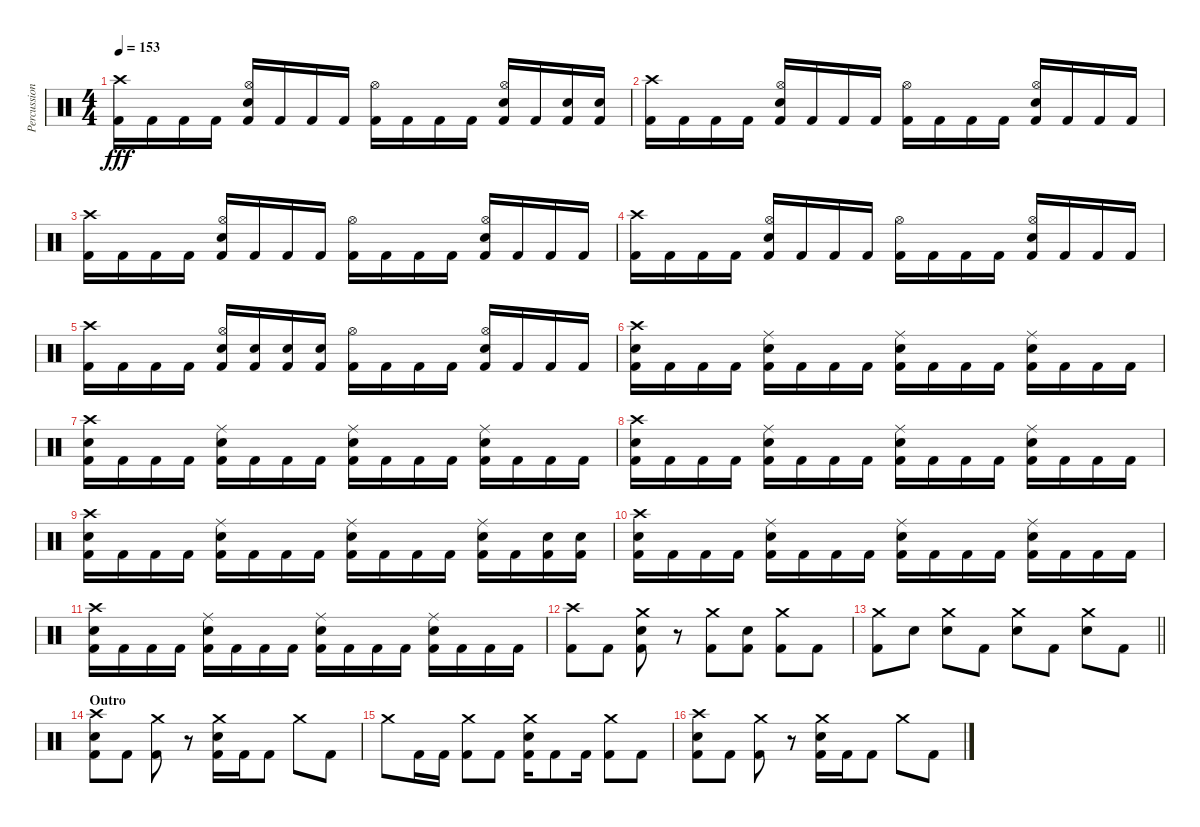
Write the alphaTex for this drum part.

\track ("Percussion" "Percussion") {instrument percussion}
\staff {score}
\articulation defaults
\ts (4 4)
\tempo 153
\clef neutral
\ks c
("Crash high (hit)" "Kick (hit) 2").16{dy fff} "Kick (hit) 2".16 "Kick (hit) 2".16 "Kick (hit) 2".16 ("Hi-Hat (open)" "Snare (hit) 2" "Kick (hit) 2").16 "Kick (hit) 2".16 "Kick (hit) 2".16 "Kick (hit) 2".16 ("Hi-Hat (open)" "Kick (hit) 2").16 "Kick (hit) 2".16 "Kick (hit) 2".16 "Kick (hit) 2".16 ("Hi-Hat (open)" "Snare (hit) 2" "Kick (hit) 2").16 "Kick (hit) 2".16 ("Snare (hit) 2" "Kick (hit) 2").16 ("Snare (hit) 2" "Kick (hit) 2").16 |
("Crash high (hit)" "Kick (hit) 2").16 "Kick (hit) 2".16 "Kick (hit) 2".16 "Kick (hit) 2".16 ("Hi-Hat (open)" "Snare (hit) 2" "Kick (hit) 2").16 "Kick (hit) 2".16 "Kick (hit) 2".16 "Kick (hit) 2".16 ("Hi-Hat (open)" "Kick (hit) 2").16 "Kick (hit) 2".16 "Kick (hit) 2".16 "Kick (hit) 2".16 ("Hi-Hat (open)" "Snare (hit) 2" "Kick (hit) 2").16 "Kick (hit) 2".16 "Kick (hit) 2".16 "Kick (hit) 2".16 |
("Crash high (hit)" "Kick (hit) 2").16 "Kick (hit) 2".16 "Kick (hit) 2".16 "Kick (hit) 2".16 ("Hi-Hat (open)" "Snare (hit) 2" "Kick (hit) 2").16 "Kick (hit) 2".16 "Kick (hit) 2".16 "Kick (hit) 2".16 ("Hi-Hat (open)" "Kick (hit) 2").16 "Kick (hit) 2".16 "Kick (hit) 2".16 "Kick (hit) 2".16 ("Hi-Hat (open)" "Snare (hit) 2" "Kick (hit) 2").16 "Kick (hit) 2".16 "Kick (hit) 2".16 "Kick (hit) 2".16 |
("Crash high (hit)" "Kick (hit) 2").16 "Kick (hit) 2".16 "Kick (hit) 2".16 "Kick (hit) 2".16 ("Hi-Hat (open)" "Snare (hit) 2" "Kick (hit) 2").16 "Kick (hit) 2".16 "Kick (hit) 2".16 "Kick (hit) 2".16 ("Hi-Hat (open)" "Kick (hit) 2").16 "Kick (hit) 2".16 "Kick (hit) 2".16 "Kick (hit) 2".16 ("Hi-Hat (open)" "Snare (hit) 2" "Kick (hit) 2").16 "Kick (hit) 2".16 "Kick (hit) 2".16 "Kick (hit) 2".16 |
("Crash high (hit)" "Kick (hit) 2").16 "Kick (hit) 2".16 "Kick (hit) 2".16 "Kick (hit) 2".16 ("Hi-Hat (open)" "Snare (hit) 2" "Kick (hit) 2").16 ("Snare (hit) 2" "Kick (hit) 2").16 ("Snare (hit) 2" "Kick (hit) 2").16 ("Snare (hit) 2" "Kick (hit) 2").16 ("Hi-Hat (open)" "Kick (hit) 2").16 "Kick (hit) 2".16 "Kick (hit) 2".16 "Kick (hit) 2".16 ("Hi-Hat (open)" "Snare (hit) 2" "Kick (hit) 2").16 "Kick (hit) 2".16 "Kick (hit) 2".16 "Kick (hit) 2".16 |
("Crash high (hit)" "Snare (hit) 2" "Kick (hit) 2").16 "Kick (hit) 2".16 "Kick (hit) 2".16 "Kick (hit) 2".16 ("Ride (middle)" "Snare (hit) 2" "Kick (hit) 2").16 "Kick (hit) 2".16 "Kick (hit) 2".16 "Kick (hit) 2".16 ("Ride (middle)" "Snare (hit) 2" "Kick (hit) 2").16 "Kick (hit) 2".16 "Kick (hit) 2".16 "Kick (hit) 2".16 ("Ride (middle)" "Snare (hit) 2" "Kick (hit) 2").16 "Kick (hit) 2".16 "Kick (hit) 2".16 "Kick (hit) 2".16 |
("Crash high (hit)" "Snare (hit) 2" "Kick (hit) 2").16 "Kick (hit) 2".16 "Kick (hit) 2".16 "Kick (hit) 2".16 ("Ride (middle)" "Snare (hit) 2" "Kick (hit) 2").16 "Kick (hit) 2".16 "Kick (hit) 2".16 "Kick (hit) 2".16 ("Ride (middle)" "Snare (hit) 2" "Kick (hit) 2").16 "Kick (hit) 2".16 "Kick (hit) 2".16 "Kick (hit) 2".16 ("Ride (middle)" "Snare (hit) 2" "Kick (hit) 2").16 "Kick (hit) 2".16 "Kick (hit) 2".16 "Kick (hit) 2".16 |
("Crash high (hit)" "Snare (hit) 2" "Kick (hit) 2").16 "Kick (hit) 2".16 "Kick (hit) 2".16 "Kick (hit) 2".16 ("Ride (middle)" "Snare (hit) 2" "Kick (hit) 2").16 "Kick (hit) 2".16 "Kick (hit) 2".16 "Kick (hit) 2".16 ("Ride (middle)" "Snare (hit) 2" "Kick (hit) 2").16 "Kick (hit) 2".16 "Kick (hit) 2".16 "Kick (hit) 2".16 ("Ride (middle)" "Snare (hit) 2" "Kick (hit) 2").16 "Kick (hit) 2".16 "Kick (hit) 2".16 "Kick (hit) 2".16 |
("Crash high (hit)" "Snare (hit) 2" "Kick (hit) 2").16 "Kick (hit) 2".16 "Kick (hit) 2".16 "Kick (hit) 2".16 ("Ride (middle)" "Snare (hit) 2" "Kick (hit) 2").16 "Kick (hit) 2".16 "Kick (hit) 2".16 "Kick (hit) 2".16 ("Ride (middle)" "Snare (hit) 2" "Kick (hit) 2").16 "Kick (hit) 2".16 "Kick (hit) 2".16 "Kick (hit) 2".16 ("Ride (middle)" "Snare (hit) 2" "Kick (hit) 2").16 "Kick (hit) 2".16 ("Snare (hit) 2" "Kick (hit) 2").16 ("Snare (hit) 2" "Kick (hit) 2").16 |
("Crash high (hit)" "Snare (hit) 2" "Kick (hit) 2").16 "Kick (hit) 2".16 "Kick (hit) 2".16 "Kick (hit) 2".16 ("Ride (middle)" "Snare (hit) 2" "Kick (hit) 2").16 "Kick (hit) 2".16 "Kick (hit) 2".16 "Kick (hit) 2".16 ("Ride (middle)" "Snare (hit) 2" "Kick (hit) 2").16 "Kick (hit) 2".16 "Kick (hit) 2".16 "Kick (hit) 2".16 ("Ride (middle)" "Snare (hit) 2" "Kick (hit) 2").16 "Kick (hit) 2".16 "Kick (hit) 2".16 "Kick (hit) 2".16 |
("Crash high (hit)" "Snare (hit) 2" "Kick (hit) 2").16 "Kick (hit) 2".16 "Kick (hit) 2".16 "Kick (hit) 2".16 ("Ride (middle)" "Snare (hit) 2" "Kick (hit) 2").16 "Kick (hit) 2".16 "Kick (hit) 2".16 "Kick (hit) 2".16 ("Ride (middle)" "Snare (hit) 2" "Kick (hit) 2").16 "Kick (hit) 2".16 "Kick (hit) 2".16 "Kick (hit) 2".16 ("Ride (middle)" "Snare (hit) 2" "Kick (hit) 2").16 "Kick (hit) 2".16 "Kick (hit) 2".16 "Kick (hit) 2".16 |
("Crash high (hit)" "Kick (hit) 2").8 "Kick (hit) 2".8 ("Crash medium (hit)" "Snare (hit) 2" "Kick (hit) 2").8 r.8 ("Crash medium (hit)" "Kick (hit) 2").8 ("Snare (hit) 2" "Kick (hit) 2").8 ("Crash medium (hit)" "Kick (hit) 2").8 "Kick (hit) 2".8 |
\barLineRight lightlight
("Crash medium (hit)" "Kick (hit) 2").8 "Snare (hit) 2".8 ("Crash medium (hit)" "Snare (hit) 2").8 "Kick (hit) 2".8 ("Crash medium (hit)" "Snare (hit) 2").8 "Kick (hit) 2".8 ("Crash medium (hit)" "Snare (hit) 2").8 "Kick (hit) 2".8 |
\section ("" "Outro")
("Crash high (hit)" "Snare (hit) 2" "Kick (hit) 2").8 "Kick (hit) 2".8 ("Crash medium (hit)" "Kick (hit) 2").8 r.8 ("Snare (hit) 2" "Crash medium (hit)" "Kick (hit) 2").16 "Kick (hit) 2".16 "Kick (hit) 2".8 "Crash medium (hit)".8 "Kick (hit) 2".8 |
"Crash medium (hit)".8 "Kick (hit) 2".16 "Kick (hit) 2".16 ("Crash medium (hit)" "Kick (hit) 2").8 "Kick (hit) 2".8 ("Snare (hit) 2" "Crash medium (hit)" "Kick (hit) 2").16 "Kick (hit) 2".8 "Kick (hit) 2".16 ("Crash medium (hit)" "Kick (hit) 2").8 "Kick (hit) 2".8 |
("Crash high (hit)" "Snare (hit) 2" "Kick (hit) 2").8 "Kick (hit) 2".8 ("Crash medium (hit)" "Kick (hit) 2").8 r.8 ("Snare (hit) 2" "Crash medium (hit)" "Kick (hit) 2").16 "Kick (hit) 2".16 "Kick (hit) 2".8 "Crash medium (hit)".8 "Kick (hit) 2".8
